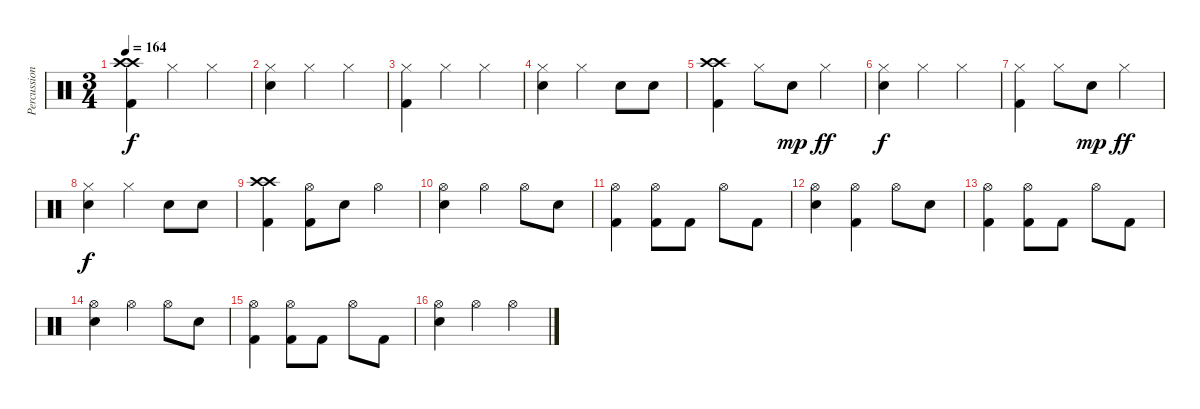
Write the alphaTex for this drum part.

\track ("Percussion" "Percussion") {instrument percussion}
\staff {score}
\articulation defaults
\ts (3 4)
\tempo 164
\clef neutral
\ks c
("Crash high (hit)" "Crash high (hit)" "Kick (hit) 2").4{dy f} "Hi-Hat (closed)".4 "Hi-Hat (closed)".4 |
("Hi-Hat (closed)" "Snare (hit) 2").4 "Hi-Hat (closed)".4 "Hi-Hat (closed)".4 |
("Hi-Hat (closed)" "Kick (hit) 2").4 "Hi-Hat (closed)".4 "Hi-Hat (closed)".4 |
("Hi-Hat (closed)" "Snare (hit) 2").4 "Hi-Hat (closed)".4 "Snare (hit) 2".8 "Snare (hit) 2".8 |
("Crash high (hit)" "Crash high (hit)" "Kick (hit) 2").4 "Hi-Hat (closed)".8 "Snare (hit) 2".8{dy mp} "Hi-Hat (closed)".4{dy ff} |
("Hi-Hat (closed)" "Snare (hit) 2").4{dy f} "Hi-Hat (closed)".4 "Hi-Hat (closed)".4 |
("Hi-Hat (closed)" "Kick (hit) 2").4 "Hi-Hat (closed)".8 "Snare (hit) 2".8{dy mp} "Hi-Hat (closed)".4{dy ff} |
("Hi-Hat (closed)" "Snare (hit) 2").4{dy f} "Hi-Hat (closed)".4 "Snare (hit) 2".8 "Snare (hit) 2".8 |
("Crash high (hit)" "Crash high (hit)" "Kick (hit) 2").4 ("Hi-Hat (open)" "Kick (hit) 2").8 "Snare (hit) 2".8 "Hi-Hat (open)".4 |
("Hi-Hat (open)" "Snare (hit) 2").4 "Hi-Hat (open)".4 "Hi-Hat (open)".8 "Snare (hit) 2".8 |
("Hi-Hat (open)" "Kick (hit) 2").4 ("Hi-Hat (open)" "Kick (hit) 2").8 "Kick (hit) 2".8 "Hi-Hat (open)".8 "Kick (hit) 2".8 |
("Hi-Hat (open)" "Snare (hit) 2").4 ("Hi-Hat (open)" "Kick (hit) 2").4 "Hi-Hat (open)".8 "Snare (hit) 2".8 |
("Hi-Hat (open)" "Kick (hit) 2").4 ("Hi-Hat (open)" "Kick (hit) 2").8 "Kick (hit) 2".8 "Hi-Hat (open)".8 "Kick (hit) 2".8 |
("Hi-Hat (open)" "Snare (hit) 2").4 "Hi-Hat (open)".4 "Hi-Hat (open)".8 "Snare (hit) 2".8 |
("Hi-Hat (open)" "Kick (hit) 2").4 ("Hi-Hat (open)" "Kick (hit) 2").8 "Kick (hit) 2".8 "Hi-Hat (open)".8 "Kick (hit) 2".8 |
("Hi-Hat (open)" "Snare (hit) 2").4 "Hi-Hat (open)".4 "Hi-Hat (open)".4
